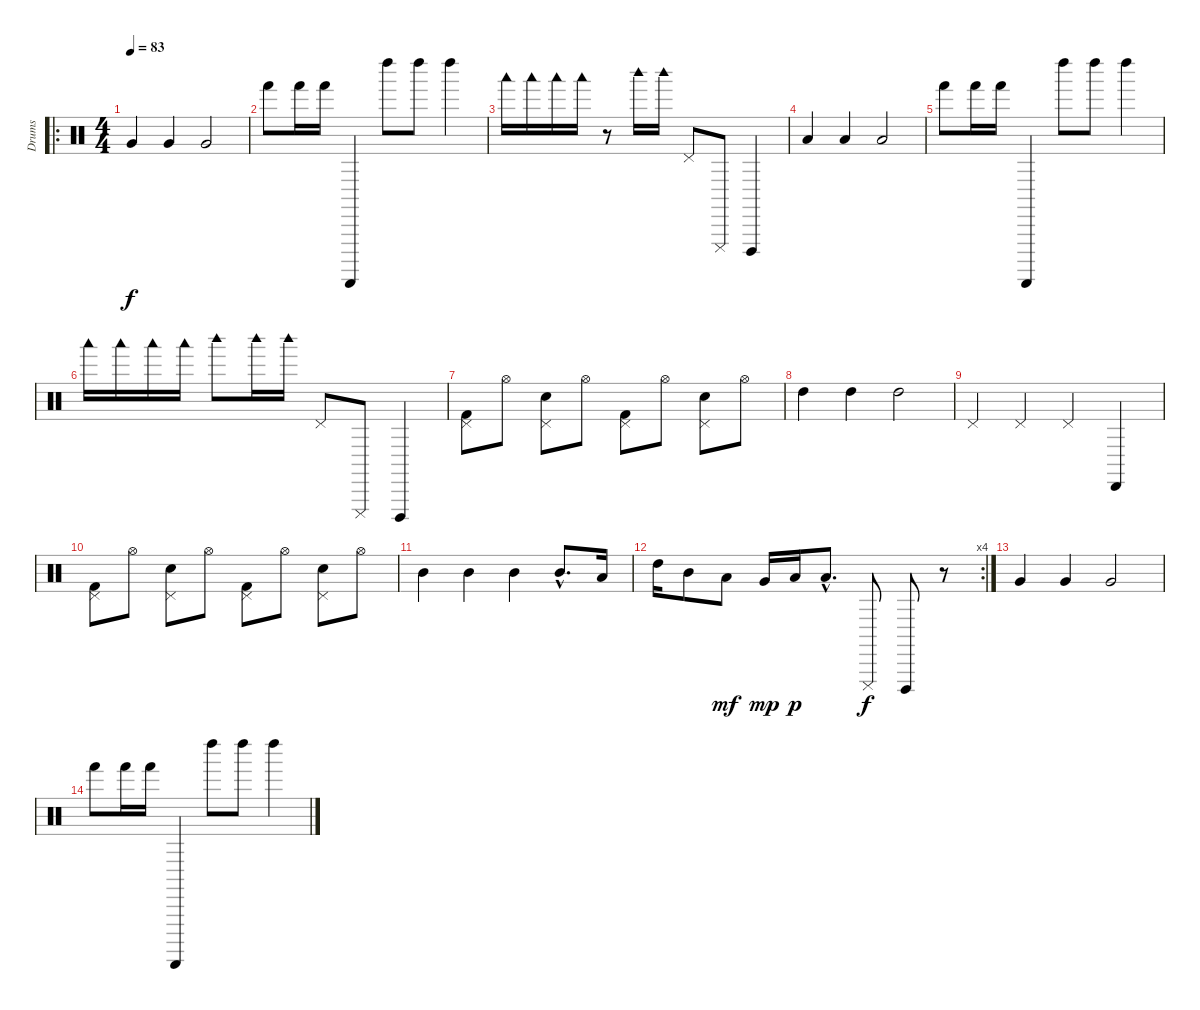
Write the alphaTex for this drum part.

\track ("Drums" "Drums") {instrument percussion}
\staff {score}
\articulation defaults
\ro
\ts (4 4)
\tempo 83
\clef neutral
\ks c "Very Low Tom (hit)".4{dy f} "Very Low Tom (hit)".4 "Very Low Tom (hit)".2
|
"Hand (hit)".8 "Hand (hit)".16 "Hand (hit)".16 "Guiro (scrap-return)".4 "Left Maraca (hit)".8 "Left Maraca (hit)".8 "Left Maraca (hit)".4 |
"Woodblock low (hit)".16 "Woodblock low (hit)".16 "Woodblock low (hit)".16 "Woodblock low (hit)".16 r.8 "Woodblock high (hit)".16 "Woodblock high (hit)".16 "Pedal Hi-Hat (hit)".8 "Cuica (mute)".8 "Cuica (open)".4 |
"Low Tom (hit)".4 "Low Tom (hit)".4 "Low Tom (hit)".2 |
"Hand (hit)".8 "Hand (hit)".16 "Hand (hit)".16 "Guiro (scrap-return)".4 "Left Maraca (hit)".8 "Left Maraca (hit)".8 "Left Maraca (hit)".4 |
"Woodblock low (hit)".16 "Woodblock low (hit)".16 "Woodblock low (hit)".16 "Woodblock low (hit)".16 "Woodblock high (hit)".8 "Woodblock high (hit)".16 "Woodblock high (hit)".16 "Pedal Hi-Hat (hit)".8 "Cuica (mute)".8 "Cuica (open)".4 |
("Pedal Hi-Hat (hit)" "Kick (hit) 2").8 "Hi-Hat (open)".8 ("Pedal Hi-Hat (hit)" "Electric Snare (hit)").8 "Hi-Hat (open)".8 ("Pedal Hi-Hat (hit)" "Kick (hit) 2").8 "Hi-Hat (open)".8 ("Pedal Hi-Hat (hit)" "Electric Snare (hit)").8 "Hi-Hat (open)".8 |
"High Tom (hit)".4 "High Tom (hit)".4 "High Tom (hit)".2 |
"Pedal Hi-Hat (hit)".4 "Pedal Hi-Hat (hit)".4 "Pedal Hi-Hat (hit)".4 "Cabasa (hit)".4 |
("Pedal Hi-Hat (hit)" "Kick (hit) 2").8 "Hi-Hat (open)".8 ("Pedal Hi-Hat (hit)" "Electric Snare (hit)").8 "Hi-Hat (open)".8 ("Pedal Hi-Hat (hit)" "Kick (hit) 2").8 "Hi-Hat (open)".8 ("Pedal Hi-Hat (hit)" "Electric Snare (hit)").8 "Hi-Hat (open)".8 |
"Mid Tom (hit)".4 "Mid Tom (hit)".4 "Mid Tom (hit)".4 "Mid Tom (hit)"{hac}.8{d} "Low Tom (hit)".16{balance 0} |
\rc 4 "High Tom (hit)".16{balance 5} "Mid Tom (hit)".8{balance 11} "Low Tom (hit)".8{dy mf balance 16} "Very Low Tom (hit)".16{dy mp balance 11} "Low Floor Tom (hit)".16{dy p balance 8} "Low Floor Tom (hit)"{hac}.8{d balance 5} "Cuica (mute)".8{dy f balance 8} "Cuica (open)".8
r.8 |
"Very Low Tom (hit)".4 "Very Low Tom (hit)".4 "Very Low Tom (hit)".2 |
"Hand (hit)".8 "Hand (hit)".16 "Hand (hit)".16 "Guiro (scrap-return)".4 "Left Maraca (hit)".8 "Left Maraca (hit)".8 "Left Maraca (hit)".4
